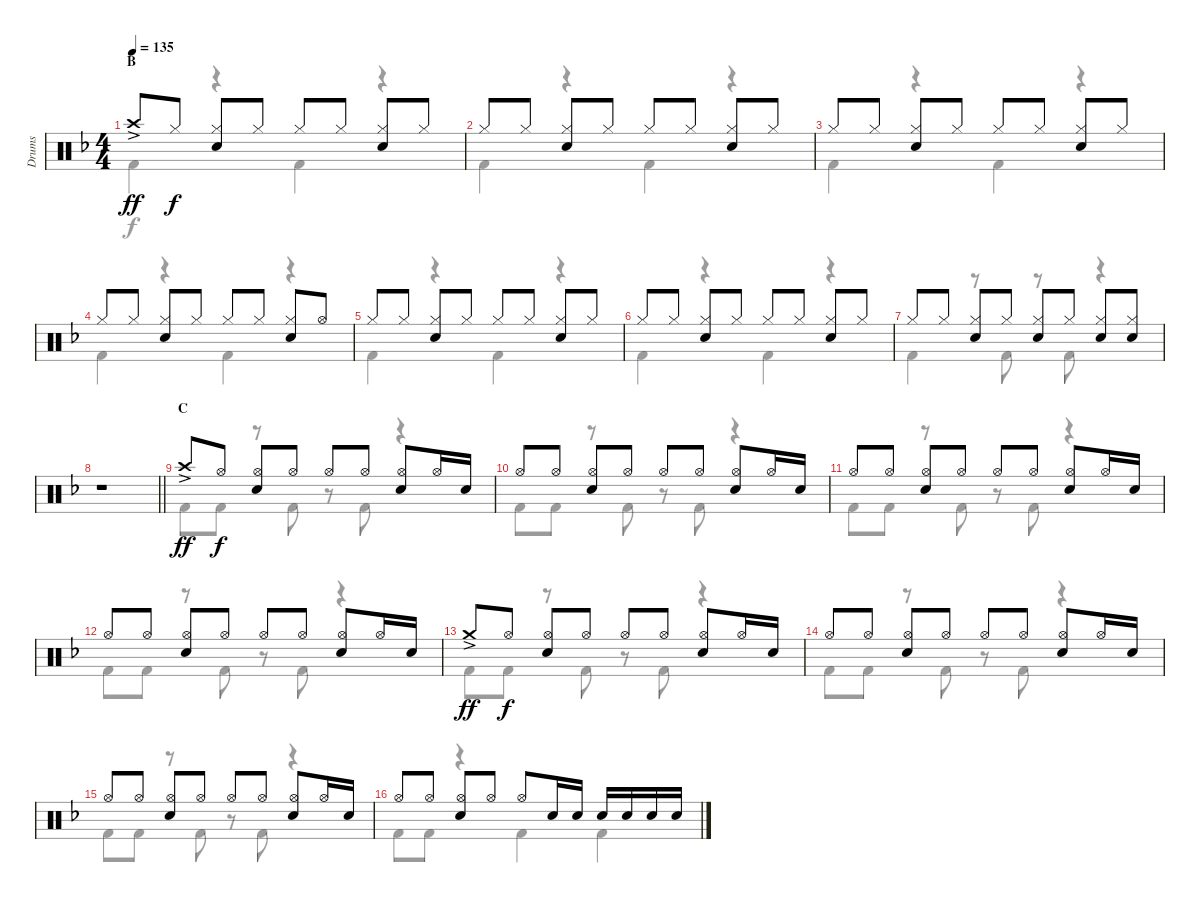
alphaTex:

\track ("Drums" "Drums") {instrument percussion}
\staff {score}
\articulation defaults
\voice
\ts (4 4)
\section ("" "B")
\tempo 135
\clef neutral
\ks f "Crash high (hit)"{ac}.8{dy ff} "Hi-Hat (closed)".8{dy f}
("Hi-Hat (closed)" "Snare (hit) 2").8 "Hi-Hat (closed)".8 "Hi-Hat (closed)".8 "Hi-Hat (closed)".8 ("Hi-Hat (closed)" "Snare (hit) 2").8 "Hi-Hat (closed)".8 |
"Hi-Hat (closed)".8 "Hi-Hat (closed)".8 ("Hi-Hat (closed)" "Snare (hit) 2").8 "Hi-Hat (closed)".8 "Hi-Hat (closed)".8 "Hi-Hat (closed)".8 ("Hi-Hat (closed)" "Snare (hit) 2").8 "Hi-Hat (closed)".8 |
"Hi-Hat (closed)".8 "Hi-Hat (closed)".8 ("Hi-Hat (closed)" "Snare (hit) 2").8 "Hi-Hat (closed)".8 "Hi-Hat (closed)".8 "Hi-Hat (closed)".8 ("Hi-Hat (closed)" "Snare (hit) 2").8 "Hi-Hat (closed)".8 |
"Hi-Hat (closed)".8 "Hi-Hat (closed)".8 ("Hi-Hat (closed)" "Snare (hit) 2").8 "Hi-Hat (closed)".8 "Hi-Hat (closed)".8 "Hi-Hat (closed)".8 ("Hi-Hat (closed)" "Snare (hit) 2").8 "Hi-Hat (open)".8 |
"Hi-Hat (closed)".8 "Hi-Hat (closed)".8 ("Hi-Hat (closed)" "Snare (hit) 2").8 "Hi-Hat (closed)".8 "Hi-Hat (closed)".8 "Hi-Hat (closed)".8 ("Hi-Hat (closed)" "Snare (hit) 2").8 "Hi-Hat (closed)".8 |
"Hi-Hat (closed)".8 "Hi-Hat (closed)".8 ("Hi-Hat (closed)" "Snare (hit) 2").8 "Hi-Hat (closed)".8 "Hi-Hat (closed)".8 "Hi-Hat (closed)".8 ("Hi-Hat (closed)" "Snare (hit) 2").8 "Hi-Hat (closed)".8 |
"Hi-Hat (closed)".8 "Hi-Hat (closed)".8 ("Hi-Hat (closed)" "Snare (hit) 2").8 "Hi-Hat (closed)".8 ("Hi-Hat (closed)" "Snare (hit) 2").8 "Hi-Hat (closed)".8 ("Hi-Hat (closed)" "Snare (hit) 2").8 ("Hi-Hat (closed)" "Snare (hit) 2").8 |
\barLineRight lightlight
r.1 |
\section ("" "C")
"Crash high (hit)"{ac}.8{dy ff} "Hi-Hat (open)".8{dy f} ("Hi-Hat (open)" "Snare (hit) 2").8 "Hi-Hat (open)".8 "Hi-Hat (open)".8 "Hi-Hat (open)".8 ("Hi-Hat (open)" "Snare (hit) 2").8 "Hi-Hat (open)".16 "Snare (hit) 2".16 |
"Hi-Hat (open)".8 "Hi-Hat (open)".8 ("Hi-Hat (open)" "Snare (hit) 2").8 "Hi-Hat (open)".8 "Hi-Hat (open)".8 "Hi-Hat (open)".8 ("Hi-Hat (open)" "Snare (hit) 2").8 "Hi-Hat (open)".16 "Snare (hit) 2".16 |
"Hi-Hat (open)".8 "Hi-Hat (open)".8 ("Hi-Hat (open)" "Snare (hit) 2").8 "Hi-Hat (open)".8 "Hi-Hat (open)".8 "Hi-Hat (open)".8 ("Hi-Hat (open)" "Snare (hit) 2").8 "Hi-Hat (open)".16 "Snare (hit) 2".16 |
"Hi-Hat (open)".8 "Hi-Hat (open)".8 ("Hi-Hat (open)" "Snare (hit) 2").8 "Hi-Hat (open)".8 "Hi-Hat (open)".8 "Hi-Hat (open)".8 ("Hi-Hat (open)" "Snare (hit) 2").8 "Hi-Hat (open)".16 "Snare (hit) 2".16 |
"Crash medium (hit)"{ac}.8{dy ff} "Hi-Hat (open)".8{dy f} ("Hi-Hat (open)" "Snare (hit) 2").8 "Hi-Hat (open)".8 "Hi-Hat (open)".8 "Hi-Hat (open)".8 ("Hi-Hat (open)" "Snare (hit) 2").8 "Hi-Hat (open)".16 "Snare (hit) 2".16 |
"Hi-Hat (open)".8 "Hi-Hat (open)".8 ("Hi-Hat (open)" "Snare (hit) 2").8 "Hi-Hat (open)".8 "Hi-Hat (open)".8 "Hi-Hat (open)".8 ("Hi-Hat (open)" "Snare (hit) 2").8 "Hi-Hat (open)".16 "Snare (hit) 2".16 |
"Hi-Hat (open)".8 "Hi-Hat (open)".8 ("Hi-Hat (open)" "Snare (hit) 2").8 "Hi-Hat (open)".8 "Hi-Hat (open)".8 "Hi-Hat (open)".8 ("Hi-Hat (open)" "Snare (hit) 2").8 "Hi-Hat (open)".16 "Snare (hit) 2".16 |
"Hi-Hat (open)".8 "Hi-Hat (open)".8 ("Hi-Hat (open)" "Snare (hit) 2").8 "Hi-Hat (open)".8 "Hi-Hat (open)".8 "Snare (hit) 2".16 "Snare (hit) 2".16 "Snare (hit) 2".16 "Snare (hit) 2".16 "Snare (hit) 2".16 "Snare (hit) 2".16
\voice
\clef neutral
\ottava regular
\simile none
\ks f "Kick (hit) 2".4{dy f}
r.4 "Kick (hit) 2".4 r.4 |
"Kick (hit) 2".4 r.4 "Kick (hit) 2".4 r.4 |
"Kick (hit) 2".4 r.4 "Kick (hit) 2".4 r.4 |
"Kick (hit) 2".4 r.4 "Kick (hit) 2".4 r.4 |
"Kick (hit) 2".4 r.4 "Kick (hit) 2".4 r.4 |
"Kick (hit) 2".4 r.4 "Kick (hit) 2".4 r.4 |
"Kick (hit) 2".4 r.8 "Kick (hit) 2".8 r.8 "Kick (hit) 2".8 r.4 |
\barLineRight lightlight
|
"Kick (hit) 2".8 "Kick (hit) 2".8 r.8 "Kick (hit) 2".8 r.8 "Kick (hit) 2".8 r.4 |
"Kick (hit) 2".8 "Kick (hit) 2".8 r.8 "Kick (hit) 2".8 r.8 "Kick (hit) 2".8 r.4 |
"Kick (hit) 2".8 "Kick (hit) 2".8 r.8 "Kick (hit) 2".8 r.8 "Kick (hit) 2".8 r.4 |
"Kick (hit) 2".8 "Kick (hit) 2".8 r.8 "Kick (hit) 2".8 r.8 "Kick (hit) 2".8 r.4 |
"Kick (hit) 2".8 "Kick (hit) 2".8 r.8 "Kick (hit) 2".8 r.8 "Kick (hit) 2".8 r.4 |
"Kick (hit) 2".8 "Kick (hit) 2".8 r.8 "Kick (hit) 2".8 r.8 "Kick (hit) 2".8 r.4 |
"Kick (hit) 2".8 "Kick (hit) 2".8 r.8 "Kick (hit) 2".8 r.8 "Kick (hit) 2".8 r.4 |
"Kick (hit) 2".8 "Kick (hit) 2".8 r.4 "Kick (hit) 2".4 "Kick (hit) 2".4
